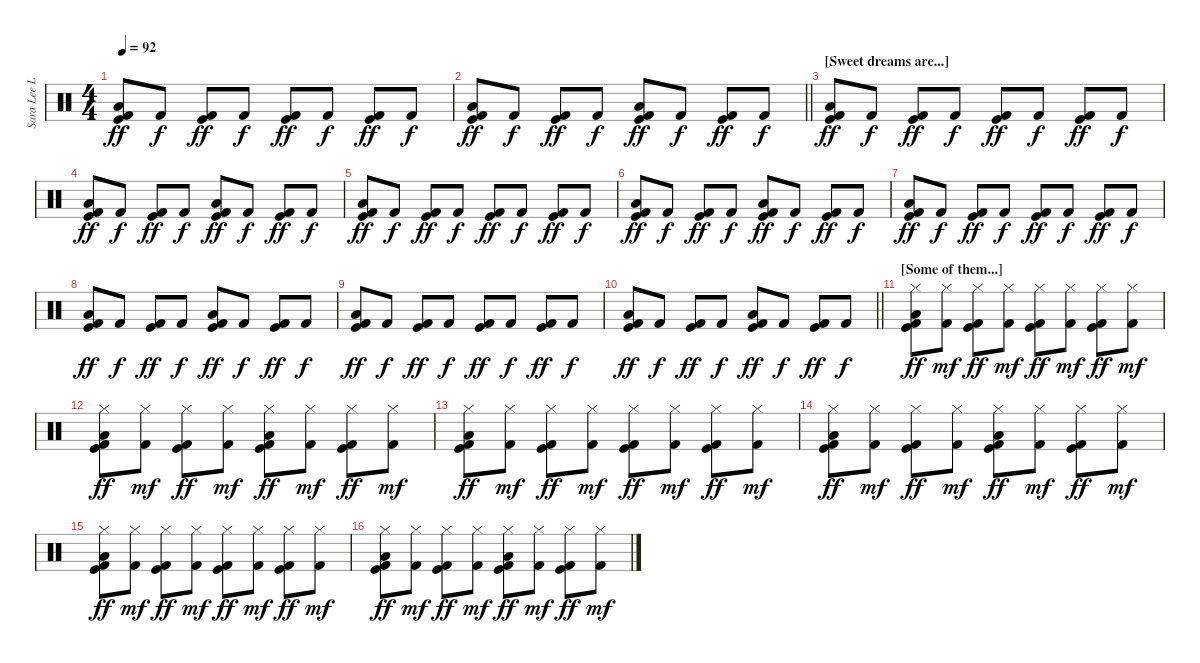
\track ("Sara Lee Lucas (Drums)" "Sara Lee L") {instrument percussion}
\staff {score}
\articulation defaults
\ts (4 4)
\tempo 92
\clef neutral
\ks c
("Low Floor Tom (hit)" "Kick (hit) 2" "Kick (hit)").8{dy ff} "Kick (hit) 2".8{dy f} ("Kick (hit) 2" "Kick (hit)").8{dy ff} "Kick (hit) 2".8{dy f} ("Kick (hit) 2" "Kick (hit)").8{dy ff} "Kick (hit) 2".8{dy f} ("Kick (hit) 2" "Kick (hit)").8{dy ff} "Kick (hit) 2".8{dy f} |
\barLineRight lightlight
("Low Floor Tom (hit)" "Kick (hit) 2" "Kick (hit)").8{dy ff} "Kick (hit) 2".8{dy f} ("Kick (hit) 2" "Kick (hit)").8{dy ff} "Kick (hit) 2".8{dy f} ("Low Floor Tom (hit)" "Kick (hit) 2" "Kick (hit)").8{dy ff} "Kick (hit) 2".8{dy f} ("Kick (hit) 2" "Kick (hit)").8{dy ff} "Kick (hit) 2".8{dy f} |
\section ("" "[Sweet dreams are...]")
("Low Floor Tom (hit)" "Kick (hit) 2" "Kick (hit)").8{dy ff} "Kick (hit) 2".8{dy f} ("Kick (hit) 2" "Kick (hit)").8{dy ff} "Kick (hit) 2".8{dy f} ("Kick (hit) 2" "Kick (hit)").8{dy ff} "Kick (hit) 2".8{dy f} ("Kick (hit) 2" "Kick (hit)").8{dy ff} "Kick (hit) 2".8{dy f} |
("Low Floor Tom (hit)" "Kick (hit) 2" "Kick (hit)").8{dy ff} "Kick (hit) 2".8{dy f} ("Kick (hit) 2" "Kick (hit)").8{dy ff} "Kick (hit) 2".8{dy f} ("Low Floor Tom (hit)" "Kick (hit) 2" "Kick (hit)").8{dy ff} "Kick (hit) 2".8{dy f} ("Kick (hit) 2" "Kick (hit)").8{dy ff} "Kick (hit) 2".8{dy f} |
("Low Floor Tom (hit)" "Kick (hit) 2" "Kick (hit)").8{dy ff} "Kick (hit) 2".8{dy f} ("Kick (hit) 2" "Kick (hit)").8{dy ff} "Kick (hit) 2".8{dy f} ("Kick (hit) 2" "Kick (hit)").8{dy ff} "Kick (hit) 2".8{dy f} ("Kick (hit) 2" "Kick (hit)").8{dy ff} "Kick (hit) 2".8{dy f} |
("Low Floor Tom (hit)" "Kick (hit) 2" "Kick (hit)").8{dy ff} "Kick (hit) 2".8{dy f} ("Kick (hit) 2" "Kick (hit)").8{dy ff} "Kick (hit) 2".8{dy f} ("Low Floor Tom (hit)" "Kick (hit) 2" "Kick (hit)").8{dy ff} "Kick (hit) 2".8{dy f} ("Kick (hit) 2" "Kick (hit)").8{dy ff} "Kick (hit) 2".8{dy f} |
("Low Floor Tom (hit)" "Kick (hit) 2" "Kick (hit)").8{dy ff} "Kick (hit) 2".8{dy f} ("Kick (hit) 2" "Kick (hit)").8{dy ff} "Kick (hit) 2".8{dy f} ("Kick (hit) 2" "Kick (hit)").8{dy ff} "Kick (hit) 2".8{dy f} ("Kick (hit) 2" "Kick (hit)").8{dy ff} "Kick (hit) 2".8{dy f} |
("Low Floor Tom (hit)" "Kick (hit) 2" "Kick (hit)").8{dy ff} "Kick (hit) 2".8{dy f} ("Kick (hit) 2" "Kick (hit)").8{dy ff} "Kick (hit) 2".8{dy f} ("Low Floor Tom (hit)" "Kick (hit) 2" "Kick (hit)").8{dy ff} "Kick (hit) 2".8{dy f} ("Kick (hit) 2" "Kick (hit)").8{dy ff} "Kick (hit) 2".8{dy f} |
("Low Floor Tom (hit)" "Kick (hit) 2" "Kick (hit)").8{dy ff} "Kick (hit) 2".8{dy f} ("Kick (hit) 2" "Kick (hit)").8{dy ff} "Kick (hit) 2".8{dy f} ("Kick (hit) 2" "Kick (hit)").8{dy ff} "Kick (hit) 2".8{dy f} ("Kick (hit) 2" "Kick (hit)").8{dy ff} "Kick (hit) 2".8{dy f} |
\barLineRight lightlight
("Low Floor Tom (hit)" "Kick (hit) 2" "Kick (hit)").8{dy ff} "Kick (hit) 2".8{dy f} ("Kick (hit) 2" "Kick (hit)").8{dy ff} "Kick (hit) 2".8{dy f} ("Low Floor Tom (hit)" "Kick (hit) 2" "Kick (hit)").8{dy ff} "Kick (hit) 2".8{dy f} ("Kick (hit) 2" "Kick (hit)").8{dy ff} "Kick (hit) 2".8{dy f} |
\section ("" "[Some of them...]")
("Hi-Hat (closed)" "Low Floor Tom (hit)" "Kick (hit) 2" "Kick (hit)").8{dy ff} ("Hi-Hat (closed)" "Kick (hit) 2").8{dy mf} ("Hi-Hat (closed)" "Kick (hit) 2" "Kick (hit)").8{dy ff} ("Hi-Hat (closed)" "Kick (hit) 2").8{dy mf} ("Hi-Hat (closed)" "Kick (hit) 2" "Kick (hit)").8{dy ff} ("Hi-Hat (closed)" "Kick (hit) 2").8{dy mf} ("Hi-Hat (closed)" "Kick (hit) 2" "Kick (hit)").8{dy ff} ("Hi-Hat (closed)" "Kick (hit) 2").8{dy mf} |
("Hi-Hat (closed)" "Low Floor Tom (hit)" "Kick (hit) 2" "Kick (hit)").8{dy ff} ("Hi-Hat (closed)" "Kick (hit) 2").8{dy mf} ("Hi-Hat (closed)" "Kick (hit) 2" "Kick (hit)").8{dy ff} ("Hi-Hat (closed)" "Kick (hit) 2").8{dy mf} ("Hi-Hat (closed)" "Low Floor Tom (hit)" "Kick (hit) 2" "Kick (hit)").8{dy ff} ("Hi-Hat (closed)" "Kick (hit) 2").8{dy mf} ("Hi-Hat (closed)" "Kick (hit) 2" "Kick (hit)").8{dy ff} ("Hi-Hat (closed)" "Kick (hit) 2").8{dy mf} |
("Hi-Hat (closed)" "Low Floor Tom (hit)" "Kick (hit) 2" "Kick (hit)").8{dy ff} ("Hi-Hat (closed)" "Kick (hit) 2").8{dy mf} ("Hi-Hat (closed)" "Kick (hit) 2" "Kick (hit)").8{dy ff} ("Hi-Hat (closed)" "Kick (hit) 2").8{dy mf} ("Hi-Hat (closed)" "Kick (hit) 2" "Kick (hit)").8{dy ff} ("Hi-Hat (closed)" "Kick (hit) 2").8{dy mf} ("Hi-Hat (closed)" "Kick (hit) 2" "Kick (hit)").8{dy ff} ("Hi-Hat (closed)" "Kick (hit) 2").8{dy mf} |
("Hi-Hat (closed)" "Low Floor Tom (hit)" "Kick (hit) 2" "Kick (hit)").8{dy ff} ("Hi-Hat (closed)" "Kick (hit) 2").8{dy mf} ("Hi-Hat (closed)" "Kick (hit) 2" "Kick (hit)").8{dy ff} ("Hi-Hat (closed)" "Kick (hit) 2").8{dy mf} ("Hi-Hat (closed)" "Low Floor Tom (hit)" "Kick (hit) 2" "Kick (hit)").8{dy ff} ("Hi-Hat (closed)" "Kick (hit) 2").8{dy mf} ("Hi-Hat (closed)" "Kick (hit) 2" "Kick (hit)").8{dy ff} ("Hi-Hat (closed)" "Kick (hit) 2").8{dy mf} |
("Hi-Hat (closed)" "Low Floor Tom (hit)" "Kick (hit) 2" "Kick (hit)").8{dy ff} ("Hi-Hat (closed)" "Kick (hit) 2").8{dy mf} ("Hi-Hat (closed)" "Kick (hit) 2" "Kick (hit)").8{dy ff} ("Hi-Hat (closed)" "Kick (hit) 2").8{dy mf} ("Hi-Hat (closed)" "Kick (hit) 2" "Kick (hit)").8{dy ff} ("Hi-Hat (closed)" "Kick (hit) 2").8{dy mf} ("Hi-Hat (closed)" "Kick (hit) 2" "Kick (hit)").8{dy ff} ("Hi-Hat (closed)" "Kick (hit) 2").8{dy mf} |
("Hi-Hat (closed)" "Low Floor Tom (hit)" "Kick (hit) 2" "Kick (hit)").8{dy ff} ("Hi-Hat (closed)" "Kick (hit) 2").8{dy mf} ("Hi-Hat (closed)" "Kick (hit) 2" "Kick (hit)").8{dy ff} ("Hi-Hat (closed)" "Kick (hit) 2").8{dy mf} ("Hi-Hat (closed)" "Low Floor Tom (hit)" "Kick (hit) 2" "Kick (hit)").8{dy ff} ("Hi-Hat (closed)" "Kick (hit) 2").8{dy mf} ("Hi-Hat (closed)" "Kick (hit) 2" "Kick (hit)").8{dy ff} ("Hi-Hat (closed)" "Kick (hit) 2").8{dy mf}
